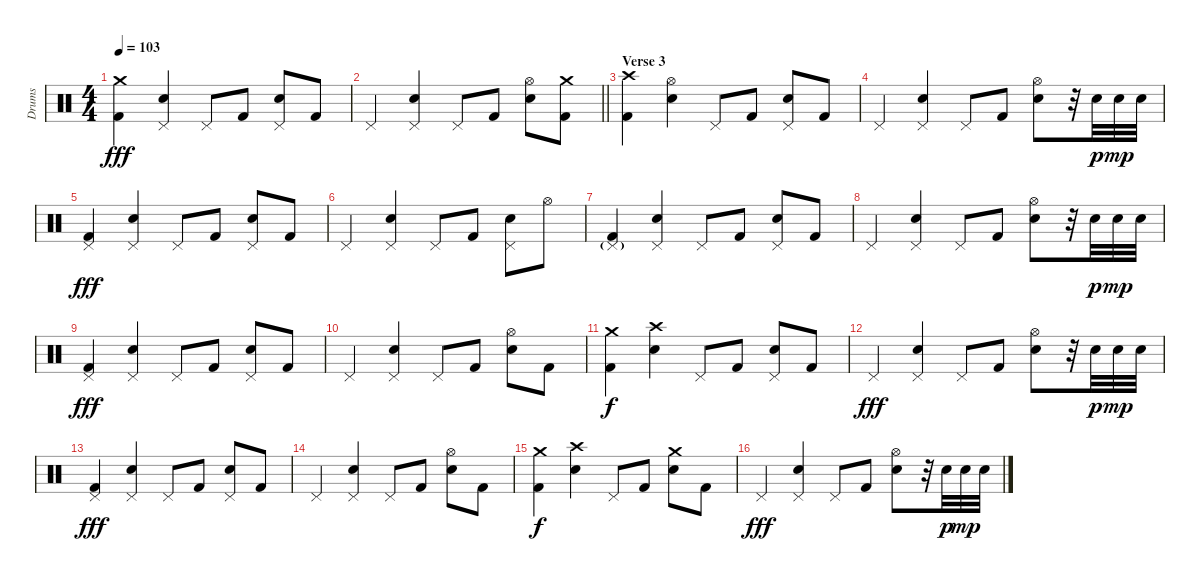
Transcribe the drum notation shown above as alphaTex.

\track ("Drums" "Drums") {instrument percussion}
\staff {score}
\articulation defaults
\ts (4 4)
\tempo 103
\clef neutral
\ks c
("Crash medium (hit)" "Kick (hit) 2").4{dy fff} ("Pedal Hi-Hat (hit)" "Snare (hit) 2").4 "Pedal Hi-Hat (hit)".8 "Kick (hit) 2".8 ("Pedal Hi-Hat (hit)" "Snare (hit) 2").8 "Kick (hit) 2".8 |
\barLineRight lightlight "Pedal Hi-Hat (hit)".4
("Pedal Hi-Hat (hit)" "Snare (hit) 2").4 "Pedal Hi-Hat (hit)".8 "Kick (hit) 2".8 ("Hi-Hat (open)" "Snare (hit) 2").8 ("Crash medium (hit)" "Kick (hit) 2").8 |
\section ("" "Verse 3")
("Crash high (hit)" "Kick (hit) 2").4 ("Hi-Hat (open)" "Snare (hit) 2").4 "Pedal Hi-Hat (hit)".8 "Kick (hit) 2".8 ("Pedal Hi-Hat (hit)" "Snare (hit) 2").8 "Kick (hit) 2".8 |
"Pedal Hi-Hat (hit)".4 ("Pedal Hi-Hat (hit)" "Snare (hit) 2").4 "Pedal Hi-Hat (hit)".8 "Kick (hit) 2".8 ("Hi-Hat (open)" "Snare (hit) 2").8 r.32 "Snare (hit) 2".32{dy p} "Snare (hit) 2".32{dy mp} "Snare (hit) 2".32 |
("Pedal Hi-Hat (hit)" "Kick (hit) 2").4{dy fff} ("Pedal Hi-Hat (hit)" "Snare (hit) 2").4 "Pedal Hi-Hat (hit)".8 "Kick (hit) 2".8 ("Pedal Hi-Hat (hit)" "Snare (hit) 2").8 "Kick (hit) 2".8 |
"Pedal Hi-Hat (hit)".4 ("Pedal Hi-Hat (hit)" "Snare (hit) 2").4 "Pedal Hi-Hat (hit)".8 "Kick (hit) 2".8 ("Pedal Hi-Hat (hit)" "Snare (hit) 2").8 "Hi-Hat (open)".8 |
("Pedal Hi-Hat (hit)"{g} "Kick (hit) 2").4 ("Pedal Hi-Hat (hit)" "Snare (hit) 2").4 "Pedal Hi-Hat (hit)".8 "Kick (hit) 2".8 ("Pedal Hi-Hat (hit)" "Snare (hit) 2").8 "Kick (hit) 2".8 |
"Pedal Hi-Hat (hit)".4 ("Pedal Hi-Hat (hit)" "Snare (hit) 2").4 "Pedal Hi-Hat (hit)".8 "Kick (hit) 2".8 ("Hi-Hat (open)" "Snare (hit) 2").8 r.32 "Snare (hit) 2".32{dy p} "Snare (hit) 2".32{dy mp} "Snare (hit) 2".32 |
("Pedal Hi-Hat (hit)" "Kick (hit) 2").4{dy fff} ("Pedal Hi-Hat (hit)" "Snare (hit) 2").4 "Pedal Hi-Hat (hit)".8 "Kick (hit) 2".8 ("Pedal Hi-Hat (hit)" "Snare (hit) 2").8 "Kick (hit) 2".8 |
"Pedal Hi-Hat (hit)".4 ("Pedal Hi-Hat (hit)" "Snare (hit) 2").4 "Pedal Hi-Hat (hit)".8 "Kick (hit) 2".8 ("Hi-Hat (open)" "Snare (hit) 2").8 "Kick (hit) 2".8 |
("Crash medium (hit)" "Kick (hit) 2").4{dy f} ("Crash high (hit)" "Snare (hit) 2").4 "Pedal Hi-Hat (hit)".8 "Kick (hit) 2".8 ("Pedal Hi-Hat (hit)" "Snare (hit) 2").8 "Kick (hit) 2".8 |
"Pedal Hi-Hat (hit)".4{dy fff} ("Pedal Hi-Hat (hit)" "Snare (hit) 2").4 "Pedal Hi-Hat (hit)".8 "Kick (hit) 2".8 ("Hi-Hat (open)" "Snare (hit) 2").8 r.32 "Snare (hit) 2".32{dy p} "Snare (hit) 2".32{dy mp} "Snare (hit) 2".32 |
("Pedal Hi-Hat (hit)" "Kick (hit) 2").4{dy fff} ("Pedal Hi-Hat (hit)" "Snare (hit) 2").4 "Pedal Hi-Hat (hit)".8 "Kick (hit) 2".8 ("Pedal Hi-Hat (hit)" "Snare (hit) 2").8 "Kick (hit) 2".8 |
"Pedal Hi-Hat (hit)".4 ("Pedal Hi-Hat (hit)" "Snare (hit) 2").4 "Pedal Hi-Hat (hit)".8 "Kick (hit) 2".8 ("Hi-Hat (open)" "Snare (hit) 2").8 "Kick (hit) 2".8 |
("Crash medium (hit)" "Kick (hit) 2").4{dy f} ("Crash high (hit)" "Snare (hit) 2").4 "Pedal Hi-Hat (hit)".8 "Kick (hit) 2".8 ("Crash medium (hit)" "Snare (hit) 2").8 "Kick (hit) 2".8 |
"Pedal Hi-Hat (hit)".4{dy fff} ("Pedal Hi-Hat (hit)" "Snare (hit) 2").4 "Pedal Hi-Hat (hit)".8 "Kick (hit) 2".8 ("Hi-Hat (open)" "Snare (hit) 2").8 r.32 "Snare (hit) 2".32{dy p} "Snare (hit) 2".32{dy mp} "Snare (hit) 2".32
